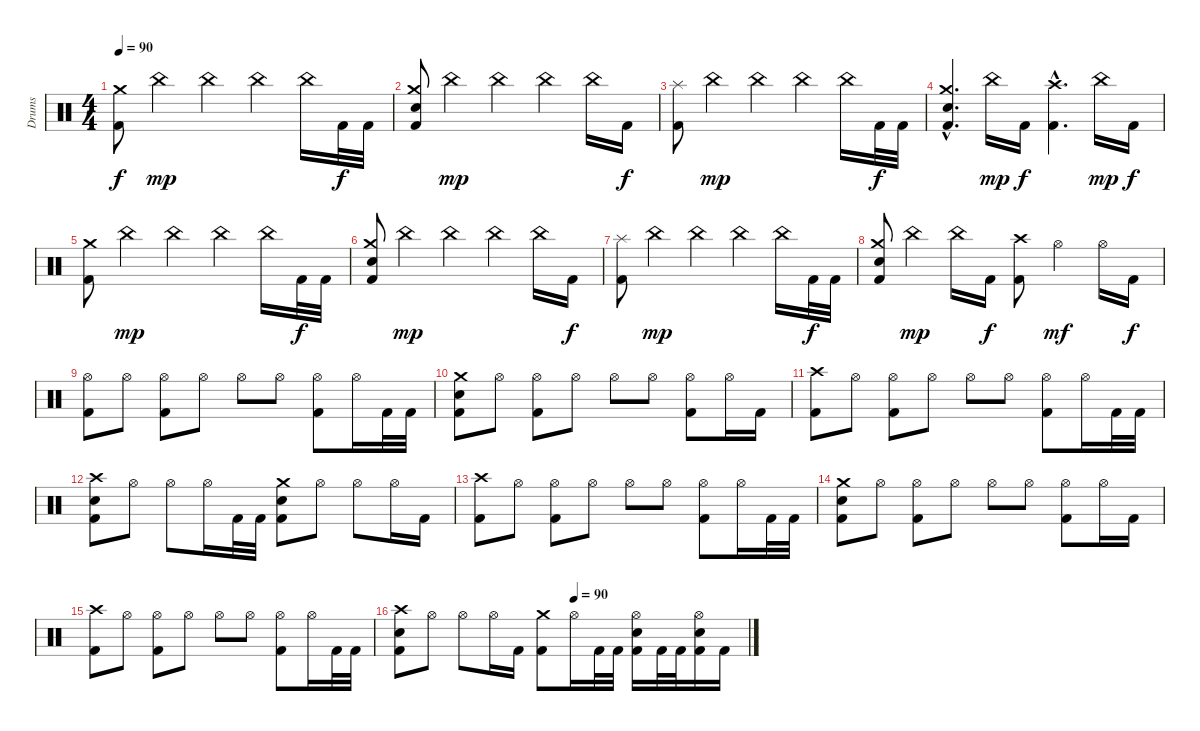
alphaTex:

\track ("Drums" "Drums") {instrument percussion}
\staff {score}
\articulation defaults
\ts (4 4)
\tempo 90
\tempo 85
\tempo 90
\clef neutral
\ks c
("Kick (hit) 2" "Crash medium (hit)").8{dy f} "China (hit)".4{dy mp} "China (hit)".4 "China (hit)".4 "China (hit)".16 "Kick (hit) 2".32{dy f} "Kick (hit) 2".32 |
("Kick (hit) 2" "Electric Snare (hit)" "Crash medium (hit)").8 "China (hit)".4{dy mp} "China (hit)".4 "China (hit)".4 "China (hit)".16 "Kick (hit) 2".16{dy f} |
("Kick (hit) 2" "Splash (hit)").8 "China (hit)".4{dy mp} "China (hit)".4 "China (hit)".4 "China (hit)".16 "Kick (hit) 2".32{dy f} "Kick (hit) 2".32 |
("Kick (hit) 2"{hac} "Electric Snare (hit)"{hac} "Crash medium (hit)"{hac}).4{d} "China (hit)".16{dy mp} "Kick (hit) 2".16{dy f} ("Kick (hit) 2"{hac} "Crash high (hit)"{hac}).4{d} "China (hit)".16{dy mp} "Kick (hit) 2".16{dy f} |
("Kick (hit) 2" "Crash medium (hit)").8 "China (hit)".4{dy mp} "China (hit)".4 "China (hit)".4 "China (hit)".16 "Kick (hit) 2".32{dy f} "Kick (hit) 2".32 |
("Kick (hit) 2" "Electric Snare (hit)" "Crash medium (hit)").8 "China (hit)".4{dy mp} "China (hit)".4 "China (hit)".4 "China (hit)".16 "Kick (hit) 2".16{dy f} |
("Kick (hit) 2" "Splash (hit)").8 "China (hit)".4{dy mp} "China (hit)".4 "China (hit)".4 "China (hit)".16 "Kick (hit) 2".32{dy f} "Kick (hit) 2".32 |
("Kick (hit) 2" "Electric Snare (hit)" "Crash medium (hit)").8 "China (hit)".4{dy mp} "China (hit)".16 "Kick (hit) 2".16{dy f} ("Kick (hit) 2" "Crash high (hit)").8 "Hi-Hat (open)".4{dy mf} "Hi-Hat (open)".16 "Kick (hit) 2".16{dy f} |
("Kick (hit) 2" "Hi-Hat (open)").8 "Hi-Hat (open)".8 ("Kick (hit) 2" "Hi-Hat (open)").8 "Hi-Hat (open)".8 "Hi-Hat (open)".8 "Hi-Hat (open)".8 ("Kick (hit) 2" "Hi-Hat (open)").8 "Hi-Hat (open)".16 "Kick (hit) 2".32 "Kick (hit) 2".32 |
("Kick (hit) 2" "Electric Snare (hit)" "Crash medium (hit)").8 "Hi-Hat (open)".8 ("Kick (hit) 2" "Hi-Hat (open)").8 "Hi-Hat (open)".8 "Hi-Hat (open)".8 "Hi-Hat (open)".8 ("Kick (hit) 2" "Hi-Hat (open)").8 "Hi-Hat (open)".16 "Kick (hit) 2".16 |
("Kick (hit) 2" "Crash high (hit)").8 "Hi-Hat (open)".8 ("Kick (hit) 2" "Hi-Hat (open)").8 "Hi-Hat (open)".8 "Hi-Hat (open)".8 "Hi-Hat (open)".8 ("Kick (hit) 2" "Hi-Hat (open)").8 "Hi-Hat (open)".16 "Kick (hit) 2".32 "Kick (hit) 2".32 |
("Kick (hit) 2" "Electric Snare (hit)" "Crash high (hit)").8 "Hi-Hat (open)".8 "Hi-Hat (open)".8 "Hi-Hat (open)".16 "Kick (hit) 2".32 "Kick (hit) 2".32 ("Kick (hit) 2" "Electric Snare (hit)" "Crash medium (hit)").8 "Hi-Hat (open)".8 "Hi-Hat (open)".8 "Hi-Hat (open)".16 "Kick (hit) 2".16 |
("Kick (hit) 2" "Crash high (hit)").8 "Hi-Hat (open)".8 ("Kick (hit) 2" "Hi-Hat (open)").8 "Hi-Hat (open)".8 "Hi-Hat (open)".8 "Hi-Hat (open)".8 ("Kick (hit) 2" "Hi-Hat (open)").8 "Hi-Hat (open)".16 "Kick (hit) 2".32 "Kick (hit) 2".32 |
("Kick (hit) 2" "Electric Snare (hit)" "Crash medium (hit)").8 "Hi-Hat (open)".8 ("Kick (hit) 2" "Hi-Hat (open)").8 "Hi-Hat (open)".8 "Hi-Hat (open)".8 "Hi-Hat (open)".8 ("Kick (hit) 2" "Hi-Hat (open)").8 "Hi-Hat (open)".16 "Kick (hit) 2".16 |
("Kick (hit) 2" "Crash high (hit)").8 "Hi-Hat (open)".8 ("Kick (hit) 2" "Hi-Hat (open)").8 "Hi-Hat (open)".8 "Hi-Hat (open)".8 "Hi-Hat (open)".8 ("Kick (hit) 2" "Hi-Hat (open)").8 "Hi-Hat (open)".16 "Kick (hit) 2".32 "Kick (hit) 2".32 |
\tempo (90 0.5)
("Kick (hit) 2" "Electric Snare (hit)" "Crash high (hit)").8 "Hi-Hat (open)".8 "Hi-Hat (open)".8 "Hi-Hat (open)".16 "Kick (hit) 2".16 ("Kick (hit) 2" "Crash medium (hit)").8 "Hi-Hat (open)".16 "Kick (hit) 2".32 "Kick (hit) 2".32 ("Kick (hit) 2" "Electric Snare (hit)" "Hi-Hat (open)").16 "Kick (hit) 2".32 "Kick (hit) 2".32 ("Kick (hit) 2" "Electric Snare (hit)" "Hi-Hat (open)").16 "Kick (hit) 2".16
